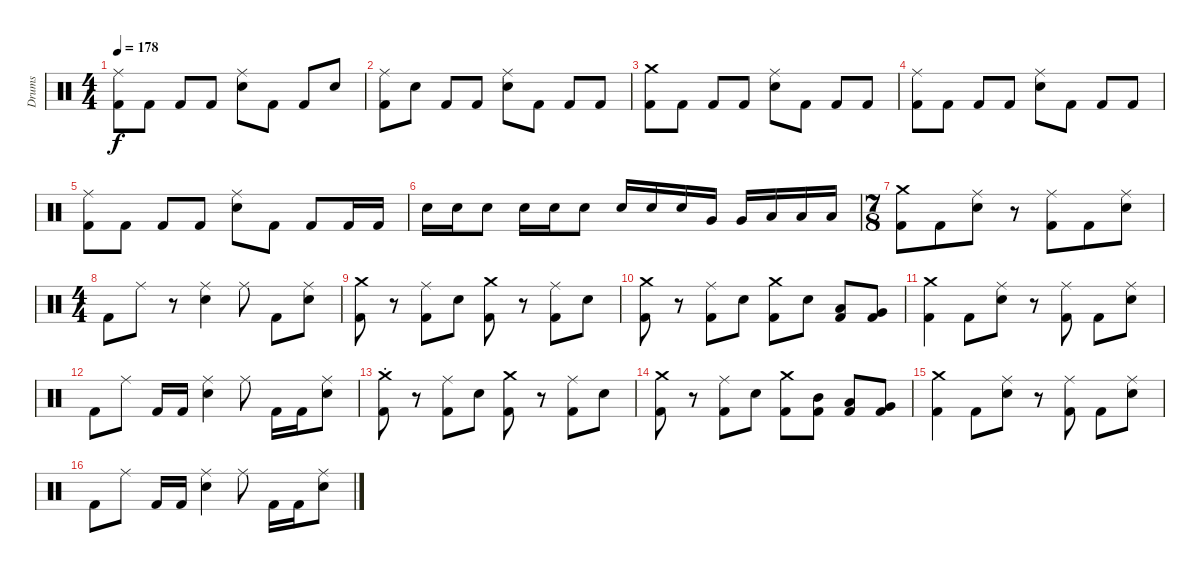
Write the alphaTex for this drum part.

\track ("Drums" "Drums") {instrument percussion}
\staff {score}
\articulation defaults
\ts (4 4)
\tempo 178
\clef neutral
\ks c
("Ride (middle)" "Kick (hit) 2").8{dy f} "Kick (hit) 2".8 "Kick (hit) 2".8 "Kick (hit) 2".8 ("Ride (middle)" "Electric Snare (hit)").8 "Kick (hit) 2".8 "Kick (hit) 2".8 "Electric Snare (hit)".8 |
("Ride (middle)" "Kick (hit) 2").8 "Electric Snare (hit)".8 "Kick (hit) 2".8 "Kick (hit) 2".8 ("Ride (middle)" "Electric Snare (hit)").8 "Kick (hit) 2".8 "Kick (hit) 2".8 "Kick (hit) 2".8 |
("Crash medium (hit)" "Kick (hit) 2").8 "Kick (hit) 2".8 "Kick (hit) 2".8 "Kick (hit) 2".8 ("Ride (middle)" "Electric Snare (hit)").8 "Kick (hit) 2".8 "Kick (hit) 2".8 "Kick (hit) 2".8 |
("Ride (middle)" "Kick (hit) 2").8 "Kick (hit) 2".8 "Kick (hit) 2".8 "Kick (hit) 2".8 ("Ride (middle)" "Electric Snare (hit)").8 "Kick (hit) 2".8 "Kick (hit) 2".8 "Kick (hit) 2".8 |
("Ride (middle)" "Kick (hit) 2").8 "Kick (hit) 2".8 "Kick (hit) 2".8 "Kick (hit) 2".8 ("Ride (middle)" "Electric Snare (hit)").8 "Kick (hit) 2".8 "Kick (hit) 2".8 "Kick (hit) 2".16 "Kick (hit) 2".16 |
"Electric Snare (hit)".16 "Electric Snare (hit)".16 "Electric Snare (hit)".8 "Electric Snare (hit)".16 "Electric Snare (hit)".16 "Electric Snare (hit)".8 "Electric Snare (hit)".16 "Electric Snare (hit)".16 "Electric Snare (hit)".16 "Very Low Tom (hit)".16 "Very Low Tom (hit)".16 "Low Floor Tom (hit)".16 "Low Floor Tom (hit)".16 "Low Floor Tom (hit)".16 |
\ts (7 8)
\section ("" "")
("Crash medium (hit)" "Kick (hit) 2").8 "Kick (hit) 2".8 ("Ride (middle)" "Electric Snare (hit)").8 r.8 ("Ride (middle)" "Kick (hit) 2").8 "Kick (hit) 2".8 ("Ride (middle)" "Electric Snare (hit)").8 |
\ts (4 4)
"Kick (hit) 2".8 "Ride (middle)".8 r.8 ("Ride (middle)" "Electric Snare (hit)").4 "Ride (middle)".8 "Kick (hit) 2".8 ("Ride (middle)" "Electric Snare (hit)").8 |
("Crash medium (hit)" "Kick (hit) 2").8 r.8 ("Ride (middle)" "Kick (hit) 2").8 "Electric Snare (hit)".8 ("Crash medium (hit)" "Kick (hit) 2").8 r.8 ("Ride (middle)" "Kick (hit) 2").8 "Electric Snare (hit)".8 |
("Crash medium (hit)" "Kick (hit) 2").8 r.8 ("Ride (middle)" "Kick (hit) 2").8 "Electric Snare (hit)".8 ("Crash medium (hit)" "Kick (hit) 2").8 "Electric Snare (hit)".8 ("Low Tom (hit)" "Kick (hit) 2").8 ("Very Low Tom (hit)" "Kick (hit) 2").8 |
("Crash medium (hit)" "Kick (hit) 2").4 "Kick (hit) 2".8 ("Ride (middle)" "Electric Snare (hit)").8 r.8 ("Ride (middle)" "Kick (hit) 2").8 "Kick (hit) 2".8 ("Ride (middle)" "Electric Snare (hit)").8 |
"Kick (hit) 2".8 "Ride (middle)".8 "Kick (hit) 2".16 "Kick (hit) 2".16 ("Ride (middle)" "Electric Snare (hit)").4 "Ride (middle)".8 "Kick (hit) 2".16 "Kick (hit) 2".16 ("Ride (middle)" "Electric Snare (hit)").8 |
("Crash medium (hit)" "Kick (hit) 2"{st}).8 r.8 ("Ride (middle)" "Kick (hit) 2").8 "Electric Snare (hit)".8 ("Crash medium (hit)" "Kick (hit) 2").8 r.8 ("Ride (middle)" "Kick (hit) 2").8 "Electric Snare (hit)".8 |
("Crash medium (hit)" "Kick (hit) 2").8 r.8 ("Ride (middle)" "Kick (hit) 2").8 "Electric Snare (hit)".8 ("Crash medium (hit)" "Kick (hit) 2").8 ("Mid Tom (hit)" "Kick (hit) 2").8 ("Low Tom (hit)" "Kick (hit) 2").8 ("Very Low Tom (hit)" "Kick (hit) 2").8 |
("Crash medium (hit)" "Kick (hit) 2").4 "Kick (hit) 2".8 ("Ride (middle)" "Electric Snare (hit)").8 r.8 ("Ride (middle)" "Kick (hit) 2").8 "Kick (hit) 2".8 ("Ride (middle)" "Electric Snare (hit)").8 |
"Kick (hit) 2".8 "Ride (middle)".8 "Kick (hit) 2".16 "Kick (hit) 2".16 ("Ride (middle)" "Electric Snare (hit)").4 "Ride (middle)".8 "Kick (hit) 2".16 "Kick (hit) 2".16 ("Ride (middle)" "Electric Snare (hit)").8
